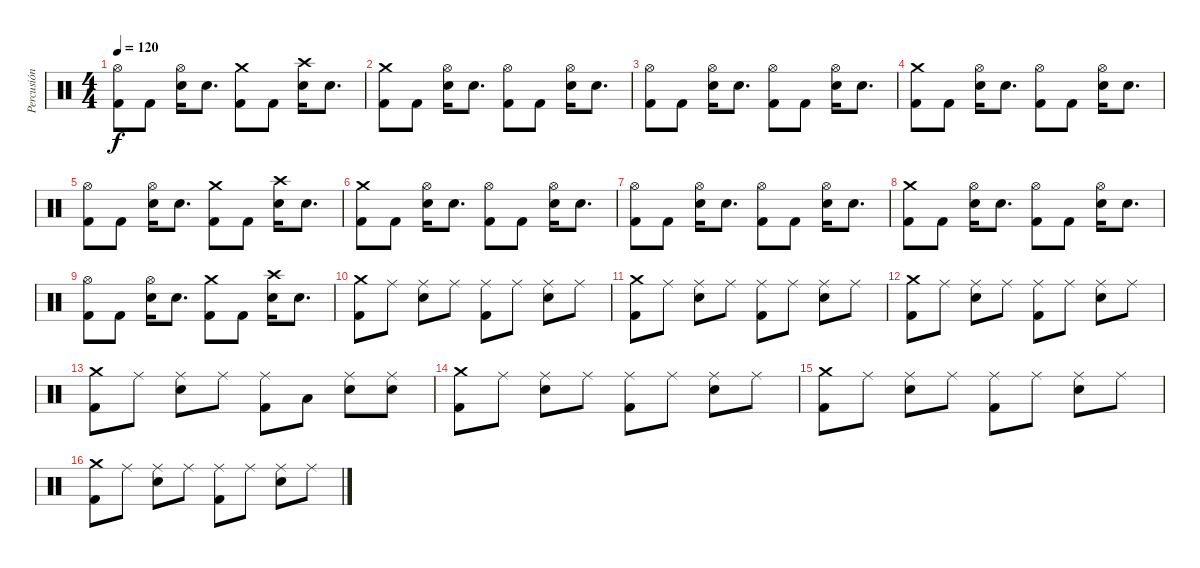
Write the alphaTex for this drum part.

\track ("Percusión" "Percusión") {instrument percussion}
\staff {score}
\articulation defaults
\ts (4 4)
\tempo 120
\clef neutral
\ks c
("Hi-Hat (open)" "Kick (hit) 2").8{dy f} "Kick (hit) 2".8 ("Hi-Hat (open)" "Electric Snare (hit)").16 "Electric Snare (hit)".8{d} ("Crash medium (hit)" "Kick (hit) 2").8 "Kick (hit) 2".8 ("Crash high (hit)" "Electric Snare (hit)").16 "Electric Snare (hit)".8{d} |
("Crash medium (hit)" "Kick (hit) 2").8 "Kick (hit) 2".8 ("Hi-Hat (open)" "Electric Snare (hit)").16 "Electric Snare (hit)".8{d} ("Hi-Hat (open)" "Kick (hit) 2").8 "Kick (hit) 2".8 ("Hi-Hat (open)" "Electric Snare (hit)").16 "Electric Snare (hit)".8{d} |
("Hi-Hat (open)" "Kick (hit) 2").8 "Kick (hit) 2".8 ("Hi-Hat (open)" "Electric Snare (hit)").16 "Electric Snare (hit)".8{d} ("Hi-Hat (open)" "Kick (hit) 2").8 "Kick (hit) 2".8 ("Hi-Hat (open)" "Electric Snare (hit)").16 "Electric Snare (hit)".8{d} |
("Crash medium (hit)" "Kick (hit) 2").8 "Kick (hit) 2".8 ("Hi-Hat (open)" "Electric Snare (hit)").16 "Electric Snare (hit)".8{d} ("Hi-Hat (open)" "Kick (hit) 2").8 "Kick (hit) 2".8 ("Hi-Hat (open)" "Electric Snare (hit)").16 "Electric Snare (hit)".8{d} |
("Hi-Hat (open)" "Kick (hit) 2").8 "Kick (hit) 2".8 ("Hi-Hat (open)" "Electric Snare (hit)").16 "Electric Snare (hit)".8{d} ("Crash medium (hit)" "Kick (hit) 2").8 "Kick (hit) 2".8 ("Crash high (hit)" "Electric Snare (hit)").16 "Electric Snare (hit)".8{d} |
("Crash medium (hit)" "Kick (hit) 2").8 "Kick (hit) 2".8 ("Hi-Hat (open)" "Electric Snare (hit)").16 "Electric Snare (hit)".8{d} ("Hi-Hat (open)" "Kick (hit) 2").8 "Kick (hit) 2".8 ("Hi-Hat (open)" "Electric Snare (hit)").16 "Electric Snare (hit)".8{d} |
("Hi-Hat (open)" "Kick (hit) 2").8 "Kick (hit) 2".8 ("Hi-Hat (open)" "Electric Snare (hit)").16 "Electric Snare (hit)".8{d} ("Hi-Hat (open)" "Kick (hit) 2").8 "Kick (hit) 2".8 ("Hi-Hat (open)" "Electric Snare (hit)").16 "Electric Snare (hit)".8{d} |
("Crash medium (hit)" "Kick (hit) 2").8 "Kick (hit) 2".8 ("Hi-Hat (open)" "Electric Snare (hit)").16 "Electric Snare (hit)".8{d} ("Hi-Hat (open)" "Kick (hit) 2").8 "Kick (hit) 2".8 ("Hi-Hat (open)" "Electric Snare (hit)").16 "Electric Snare (hit)".8{d} |
("Hi-Hat (open)" "Kick (hit) 2").8 "Kick (hit) 2".8 ("Hi-Hat (open)" "Electric Snare (hit)").16 "Electric Snare (hit)".8{d} ("Crash medium (hit)" "Kick (hit) 2").8 "Kick (hit) 2".8 ("Crash high (hit)" "Electric Snare (hit)").16 "Electric Snare (hit)".8{d} |
("Crash medium (hit)" "Kick (hit) 2").8 "Ride (middle)".8 ("Ride (middle)" "Electric Snare (hit)").8 "Ride (middle)".8 ("Ride (middle)" "Kick (hit) 2").8 "Ride (middle)".8 ("Ride (middle)" "Electric Snare (hit)").8 "Ride (middle)".8 |
("Crash medium (hit)" "Kick (hit) 2").8 "Ride (middle)".8 ("Ride (middle)" "Electric Snare (hit)").8 "Ride (middle)".8 ("Ride (middle)" "Kick (hit) 2").8 "Ride (middle)".8 ("Ride (middle)" "Electric Snare (hit)").8 "Ride (middle)".8 |
("Crash medium (hit)" "Kick (hit) 2").8 "Ride (middle)".8 ("Ride (middle)" "Electric Snare (hit)").8 "Ride (middle)".8 ("Ride (middle)" "Kick (hit) 2").8 "Ride (middle)".8 ("Ride (middle)" "Electric Snare (hit)").8 "Ride (middle)".8 |
("Crash medium (hit)" "Kick (hit) 2").8 "Ride (middle)".8 ("Ride (middle)" "Electric Snare (hit)").8 "Ride (middle)".8 ("Ride (middle)" "Kick (hit) 2").8 "Low Tom (hit)".8 ("Ride (middle)" "Electric Snare (hit)").8 ("Ride (middle)" "Electric Snare (hit)").8 |
("Crash medium (hit)" "Kick (hit) 2").8 "Ride (middle)".8 ("Ride (middle)" "Electric Snare (hit)").8 "Ride (middle)".8 ("Ride (middle)" "Kick (hit) 2").8 "Ride (middle)".8 ("Ride (middle)" "Electric Snare (hit)").8 "Ride (middle)".8 |
("Crash medium (hit)" "Kick (hit) 2").8 "Ride (middle)".8 ("Ride (middle)" "Electric Snare (hit)").8 "Ride (middle)".8 ("Ride (middle)" "Kick (hit) 2").8 "Ride (middle)".8 ("Ride (middle)" "Electric Snare (hit)").8 "Ride (middle)".8 |
("Crash medium (hit)" "Kick (hit) 2").8 "Ride (middle)".8 ("Ride (middle)" "Electric Snare (hit)").8 "Ride (middle)".8 ("Ride (middle)" "Kick (hit) 2").8 "Ride (middle)".8 ("Ride (middle)" "Electric Snare (hit)").8 "Ride (middle)".8
